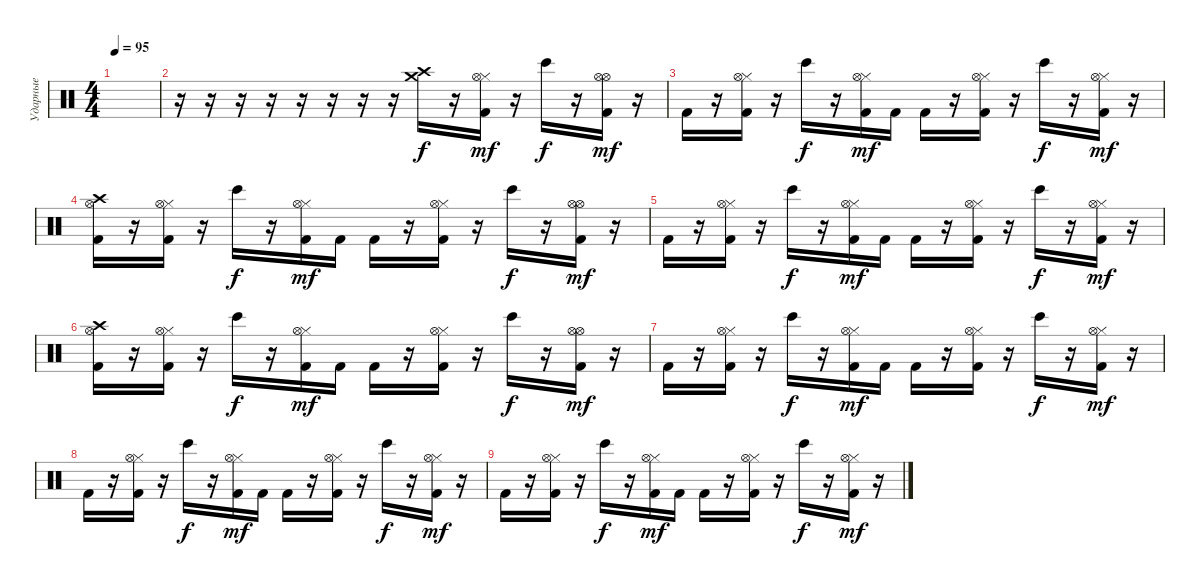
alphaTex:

\track ("Ударные" "Ударные") {instrument percussion}
\staff {score}
\articulation defaults
\ts (4 4)
\tempo 95
\clef neutral
\ks c
|
r.16 r.16 r.16 r.16 r.16 r.16 r.16 r.16 ("Crash high (hit)" "Crash medium (hit)").16 r.16 ("Hi-Hat (closed)" "Kick (hit) 2" "Hi-Hat (open)").16{dy mf} r.16 "Bongo High (hit)".16{dy f} r.16 ("Hi-Hat (open)" "Kick (hit) 2" "Hi-Hat (open)").16{dy mf} r.16 |
"Kick (hit) 2".16 r.16 ("Hi-Hat (closed)" "Kick (hit) 2" "Hi-Hat (open)").16 r.16 "Bongo High (hit)".16{dy f} r.16 ("Hi-Hat (closed)" "Kick (hit) 2" "Hi-Hat (open)").16{dy mf} "Kick (hit) 2".16 "Kick (hit) 2".16 r.16 ("Hi-Hat (closed)" "Kick (hit) 2" "Hi-Hat (open)").16 r.16 "Bongo High (hit)".16{dy f} r.16 ("Hi-Hat (closed)" "Kick (hit) 2" "Hi-Hat (open)").16{dy mf} r.16 |
("Crash high (hit)" "Kick (hit) 2" "Hi-Hat (open)").16 r.16 ("Hi-Hat (closed)" "Kick (hit) 2" "Hi-Hat (open)").16 r.16 "Bongo High (hit)".16{dy f} r.16 ("Hi-Hat (closed)" "Kick (hit) 2" "Hi-Hat (open)").16{dy mf} "Kick (hit) 2".16 "Kick (hit) 2".16 r.16 ("Hi-Hat (closed)" "Kick (hit) 2" "Hi-Hat (open)").16 r.16 "Bongo High (hit)".16{dy f} r.16 ("Hi-Hat (open)" "Kick (hit) 2" "Hi-Hat (open)").16{dy mf} r.16 |
"Kick (hit) 2".16 r.16 ("Hi-Hat (closed)" "Kick (hit) 2" "Hi-Hat (open)").16 r.16 "Bongo High (hit)".16{dy f} r.16 ("Hi-Hat (closed)" "Kick (hit) 2" "Hi-Hat (open)").16{dy mf} "Kick (hit) 2".16 "Kick (hit) 2".16 r.16 ("Hi-Hat (closed)" "Kick (hit) 2" "Hi-Hat (open)").16 r.16 "Bongo High (hit)".16{dy f} r.16 ("Hi-Hat (closed)" "Kick (hit) 2" "Hi-Hat (open)").16{dy mf} r.16 |
("Crash high (hit)" "Kick (hit) 2" "Hi-Hat (open)").16 r.16 ("Hi-Hat (closed)" "Kick (hit) 2" "Hi-Hat (open)").16 r.16 "Bongo High (hit)".16{dy f} r.16 ("Hi-Hat (closed)" "Kick (hit) 2" "Hi-Hat (open)").16{dy mf} "Kick (hit) 2".16 "Kick (hit) 2".16 r.16 ("Hi-Hat (closed)" "Kick (hit) 2" "Hi-Hat (open)").16 r.16 "Bongo High (hit)".16{dy f} r.16 ("Hi-Hat (open)" "Kick (hit) 2" "Hi-Hat (open)").16{dy mf} r.16 |
"Kick (hit) 2".16 r.16 ("Hi-Hat (closed)" "Kick (hit) 2" "Hi-Hat (open)").16 r.16 "Bongo High (hit)".16{dy f} r.16 ("Hi-Hat (closed)" "Kick (hit) 2" "Hi-Hat (open)").16{dy mf} "Kick (hit) 2".16 "Kick (hit) 2".16 r.16 ("Hi-Hat (closed)" "Kick (hit) 2" "Hi-Hat (open)").16 r.16 "Bongo High (hit)".16{dy f} r.16 ("Hi-Hat (closed)" "Kick (hit) 2" "Hi-Hat (open)").16{dy mf} r.16 |
"Kick (hit) 2".16 r.16 ("Hi-Hat (closed)" "Kick (hit) 2" "Hi-Hat (open)").16 r.16 "Bongo High (hit)".16{dy f} r.16 ("Hi-Hat (closed)" "Kick (hit) 2" "Hi-Hat (open)").16{dy mf} "Kick (hit) 2".16 "Kick (hit) 2".16 r.16 ("Hi-Hat (closed)" "Kick (hit) 2" "Hi-Hat (open)").16 r.16 "Bongo High (hit)".16{dy f} r.16 ("Hi-Hat (closed)" "Kick (hit) 2" "Hi-Hat (open)").16{dy mf} r.16 |
"Kick (hit) 2".16 r.16 ("Hi-Hat (closed)" "Kick (hit) 2" "Hi-Hat (open)").16 r.16 "Bongo High (hit)".16{dy f} r.16 ("Hi-Hat (closed)" "Kick (hit) 2" "Hi-Hat (open)").16{dy mf} "Kick (hit) 2".16 "Kick (hit) 2".16 r.16 ("Hi-Hat (closed)" "Kick (hit) 2" "Hi-Hat (open)").16 r.16 "Bongo High (hit)".16{dy f} r.16 ("Hi-Hat (closed)" "Kick (hit) 2" "Hi-Hat (open)").16{dy mf} r.16
